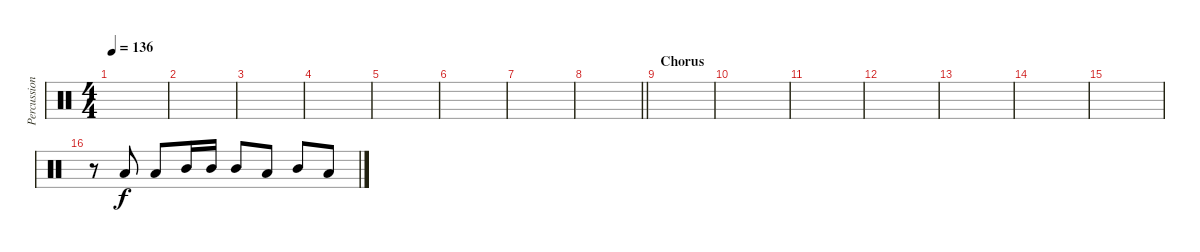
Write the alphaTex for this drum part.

\track ("Percussion (Guitar)" "Percussion") {instrument percussion}
\staff {score}
\articulation defaults
\ts (4 4)
\tempo 136
\clef neutral
\ks c
|
|
|
|
|
|
|
\barLineRight lightlight
|
\section ("" "Chorus")
|
|
|
|
|
|
|
r.8 "Low Tom (hit)".8 "Low Tom (hit)".8 "Mid Tom (hit)".16 "Mid Tom (hit)".16 "Mid Tom (hit)".8 "Low Tom (hit)".8 "Mid Tom (hit)".8 "Low Tom (hit)".8
